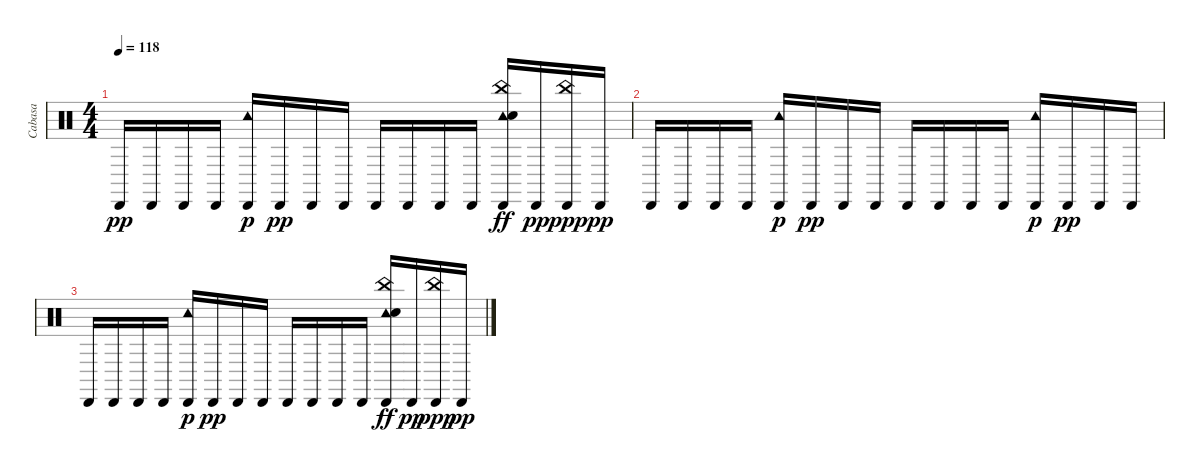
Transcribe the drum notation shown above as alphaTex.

\track ("Cabasa" "Cabasa") {instrument percussion}
\staff {score}
\articulation defaults
\ts (4 4)
\tempo 118
\clef neutral
\ks c "Cabasa (hit)".16{dy pp} "Cabasa (hit)".16 "Cabasa (hit)".16 "Cabasa (hit)".16
("Cabasa (hit)" "Tambourine (hit)").16{dy p} "Cabasa (hit)".16{dy pp} "Cabasa (hit)".16 "Cabasa (hit)".16 "Cabasa (hit)".16 "Cabasa (hit)".16 "Cabasa (hit)".16 "Cabasa (hit)".16 ("Cabasa (hit)" "Tambourine (hit)" "Hand Clap (hit)" "China (hit)").16{dy ff} "Cabasa (hit)".16{dy pp} ("Cabasa (hit)" "China (hit)").16{dy ppp} "Cabasa (hit)".16{dy pp} |
"Cabasa (hit)".16 "Cabasa (hit)".16 "Cabasa (hit)".16 "Cabasa (hit)".16 ("Cabasa (hit)" "Tambourine (hit)").16{dy p} "Cabasa (hit)".16{dy pp} "Cabasa (hit)".16 "Cabasa (hit)".16 "Cabasa (hit)".16 "Cabasa (hit)".16 "Cabasa (hit)".16 "Cabasa (hit)".16 ("Cabasa (hit)" "Tambourine (hit)").16{dy p} "Cabasa (hit)".16{dy pp} "Cabasa (hit)".16 "Cabasa (hit)".16 |
"Cabasa (hit)".16 "Cabasa (hit)".16 "Cabasa (hit)".16 "Cabasa (hit)".16 ("Cabasa (hit)" "Tambourine (hit)").16{dy p} "Cabasa (hit)".16{dy pp} "Cabasa (hit)".16 "Cabasa (hit)".16 "Cabasa (hit)".16 "Cabasa (hit)".16 "Cabasa (hit)".16 "Cabasa (hit)".16 ("Cabasa (hit)" "Tambourine (hit)" "Hand Clap (hit)" "China (hit)").16{dy ff} "Cabasa (hit)".16{dy pp} ("Cabasa (hit)" "China (hit)").16{dy ppp} "Cabasa (hit)".16{dy pp}
